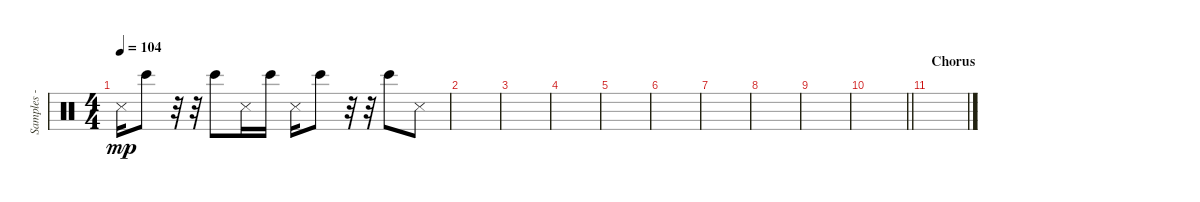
\track ("Samples - Joe Hahn" "Samples - ") {instrument percussion}
\staff {score}
\articulation defaults
\ts (4 4)
\tempo 104
\clef neutral
\ks c "Metronome (hit)".16{dy mp} "Bongo High (hit)".8
r.32 r.32 "Bongo High (hit)".8 "Metronome (hit)".16 "Bongo High (hit)".16 "Metronome (hit)".16 "Bongo High (hit)".8 r.32 r.32 "Bongo High (hit)".8 "Metronome (hit)".8 |
|
|
|
|
|
|
|
|
\barLineRight lightlight
|
\section ("" "Chorus")
